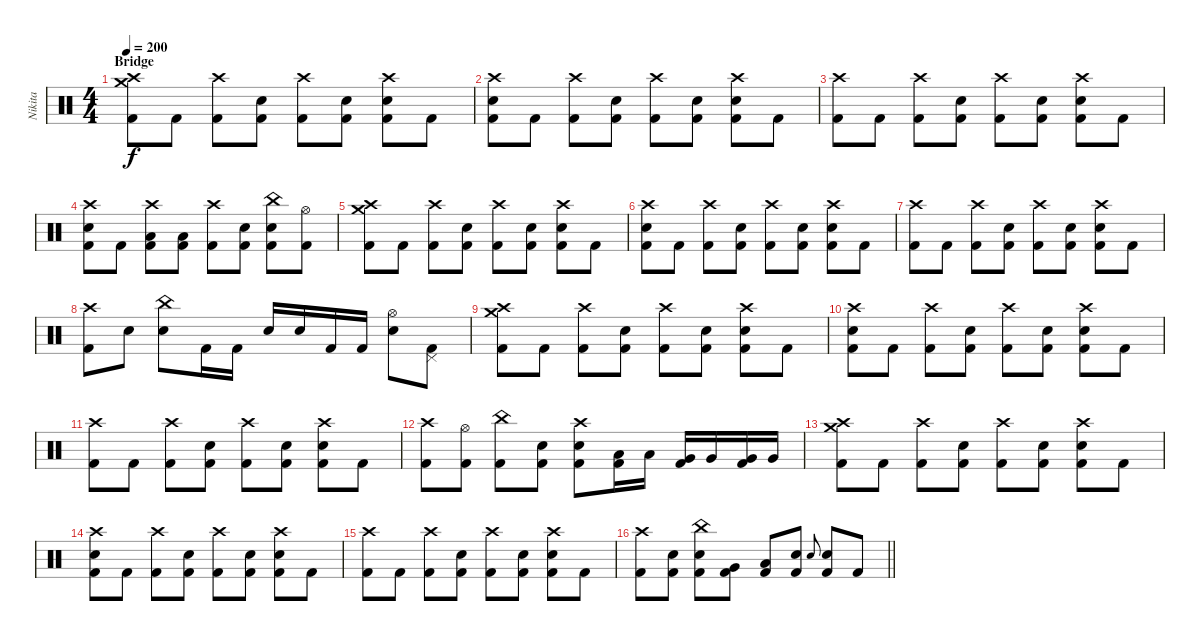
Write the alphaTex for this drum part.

\track ("Nikita" "Nikita") {instrument percussion}
\staff {score}
\articulation defaults
\ts (4 4)
\section ("" "Bridge")
\tempo 200
\clef neutral
\ks c
("Crash medium (hit)" "Crash high (hit)" "Kick (hit) 2").8{dy f} "Kick (hit) 2".8 ("Crash high (hit)" "Kick (hit) 2").8 ("Electric Snare (hit)" "Kick (hit) 2").8 ("Crash high (hit)" "Kick (hit) 2").8 ("Electric Snare (hit)" "Kick (hit) 2").8 ("Crash high (hit)" "Electric Snare (hit)" "Kick (hit) 2").8 "Kick (hit) 2".8 |
("Crash high (hit)" "Electric Snare (hit)" "Kick (hit) 2").8 "Kick (hit) 2".8 ("Crash high (hit)" "Kick (hit) 2").8 ("Electric Snare (hit)" "Kick (hit) 2").8 ("Crash high (hit)" "Kick (hit) 2").8 ("Electric Snare (hit)" "Kick (hit) 2").8 ("Crash high (hit)" "Electric Snare (hit)" "Kick (hit) 2").8 "Kick (hit) 2".8 |
("Crash high (hit)" "Kick (hit) 2").8 "Kick (hit) 2".8 ("Crash high (hit)" "Kick (hit) 2").8 ("Electric Snare (hit)" "Kick (hit) 2").8 ("Crash high (hit)" "Kick (hit) 2").8 ("Electric Snare (hit)" "Kick (hit) 2").8 ("Crash high (hit)" "Electric Snare (hit)" "Kick (hit) 2").8 "Kick (hit) 2".8 |
("Crash high (hit)" "Electric Snare (hit)" "Kick (hit) 2").8 "Kick (hit) 2".8 ("Crash high (hit)" "Low Tom (hit)" "Kick (hit) 2").8 ("Low Tom (hit)" "Kick (hit) 2").8 ("Crash high (hit)" "Kick (hit) 2").8 ("Electric Snare (hit)" "Kick (hit) 2").8 ("China (hit)" "Electric Snare (hit)" "Kick (hit) 2").8 ("Hi-Hat (open)" "Kick (hit) 2").8 |
("Crash medium (hit)" "Crash high (hit)" "Kick (hit) 2").8 "Kick (hit) 2".8 ("Crash high (hit)" "Kick (hit) 2").8 ("Electric Snare (hit)" "Kick (hit) 2").8 ("Crash high (hit)" "Kick (hit) 2").8 ("Electric Snare (hit)" "Kick (hit) 2").8 ("Crash high (hit)" "Electric Snare (hit)" "Kick (hit) 2").8 "Kick (hit) 2".8 |
("Crash high (hit)" "Electric Snare (hit)" "Kick (hit) 2").8 "Kick (hit) 2".8 ("Crash high (hit)" "Kick (hit) 2").8 ("Electric Snare (hit)" "Kick (hit) 2").8 ("Crash high (hit)" "Kick (hit) 2").8 ("Electric Snare (hit)" "Kick (hit) 2").8 ("Crash high (hit)" "Electric Snare (hit)" "Kick (hit) 2").8 "Kick (hit) 2".8 |
("Crash high (hit)" "Kick (hit) 2").8 "Kick (hit) 2".8 ("Crash high (hit)" "Kick (hit) 2").8 ("Electric Snare (hit)" "Kick (hit) 2").8 ("Crash high (hit)" "Kick (hit) 2").8 ("Electric Snare (hit)" "Kick (hit) 2").8 ("Crash high (hit)" "Electric Snare (hit)" "Kick (hit) 2").8 "Kick (hit) 2".8 |
("Crash high (hit)" "Kick (hit) 2").8 "Electric Snare (hit)".8 ("China (hit)" "Electric Snare (hit)").8 "Kick (hit) 2".16 "Kick (hit) 2".16 "Electric Snare (hit)".16 "Electric Snare (hit)".16 "Kick (hit) 2".16 "Kick (hit) 2".16 ("Hi-Hat (open)" "Electric Snare (hit)").8 ("Pedal Hi-Hat (hit)" "Kick (hit) 2").8 |
("Crash medium (hit)" "Crash high (hit)" "Kick (hit) 2").8 "Kick (hit) 2".8 ("Crash high (hit)" "Kick (hit) 2").8 ("Electric Snare (hit)" "Kick (hit) 2").8 ("Crash high (hit)" "Kick (hit) 2").8 ("Electric Snare (hit)" "Kick (hit) 2").8 ("Crash high (hit)" "Electric Snare (hit)" "Kick (hit) 2").8 "Kick (hit) 2".8 |
("Crash high (hit)" "Electric Snare (hit)" "Kick (hit) 2").8 "Kick (hit) 2".8 ("Crash high (hit)" "Kick (hit) 2").8 ("Electric Snare (hit)" "Kick (hit) 2").8 ("Crash high (hit)" "Kick (hit) 2").8 ("Electric Snare (hit)" "Kick (hit) 2").8 ("Crash high (hit)" "Electric Snare (hit)" "Kick (hit) 2").8 "Kick (hit) 2".8 |
("Crash high (hit)" "Kick (hit) 2").8 "Kick (hit) 2".8 ("Crash high (hit)" "Kick (hit) 2").8 ("Electric Snare (hit)" "Kick (hit) 2").8 ("Crash high (hit)" "Kick (hit) 2").8 ("Electric Snare (hit)" "Kick (hit) 2").8 ("Crash high (hit)" "Electric Snare (hit)" "Kick (hit) 2").8 "Kick (hit) 2".8 |
("Crash high (hit)" "Kick (hit) 2").8 ("Hi-Hat (open)" "Kick (hit) 2").8 ("China (hit)" "Kick (hit) 2").8 ("Electric Snare (hit)" "Kick (hit) 2").8 ("Crash high (hit)" "Electric Snare (hit)" "Kick (hit) 2").8 ("Low Tom (hit)" "Kick (hit) 2").16 "Low Tom (hit)".16 ("Very Low Tom (hit)" "Kick (hit) 2").16 "Very Low Tom (hit)".16 ("Very Low Tom (hit)" "Kick (hit) 2").16 "Very Low Tom (hit)".16 |
("Crash medium (hit)" "Crash high (hit)" "Kick (hit) 2").8 "Kick (hit) 2".8 ("Crash high (hit)" "Kick (hit) 2").8 ("Electric Snare (hit)" "Kick (hit) 2").8 ("Crash high (hit)" "Kick (hit) 2").8 ("Electric Snare (hit)" "Kick (hit) 2").8 ("Crash high (hit)" "Electric Snare (hit)" "Kick (hit) 2").8 "Kick (hit) 2".8 |
("Crash high (hit)" "Electric Snare (hit)" "Kick (hit) 2").8 "Kick (hit) 2".8 ("Crash high (hit)" "Kick (hit) 2").8 ("Electric Snare (hit)" "Kick (hit) 2").8 ("Crash high (hit)" "Kick (hit) 2").8 ("Electric Snare (hit)" "Kick (hit) 2").8 ("Crash high (hit)" "Electric Snare (hit)" "Kick (hit) 2").8 "Kick (hit) 2".8 |
("Crash high (hit)" "Kick (hit) 2").8 "Kick (hit) 2".8 ("Crash high (hit)" "Kick (hit) 2").8 ("Electric Snare (hit)" "Kick (hit) 2").8 ("Crash high (hit)" "Kick (hit) 2").8 ("Electric Snare (hit)" "Kick (hit) 2").8 ("Crash high (hit)" "Electric Snare (hit)" "Kick (hit) 2").8 "Kick (hit) 2".8 |
\barLineRight lightlight
("Crash high (hit)" "Kick (hit) 2").8 ("Electric Snare (hit)" "Kick (hit) 2").8 ("China (hit)" "Electric Snare (hit)" "Kick (hit) 2").8 ("Very Low Tom (hit)" "Kick (hit) 2").8 ("Low Tom (hit)" "Kick (hit) 2").8 ("Electric Snare (hit)" "Kick (hit) 2").8 "Electric Snare (hit)"{x}.8{gr onbeat} ("Electric Snare (hit)" "Kick (hit) 2").8 "Kick (hit) 2".8
